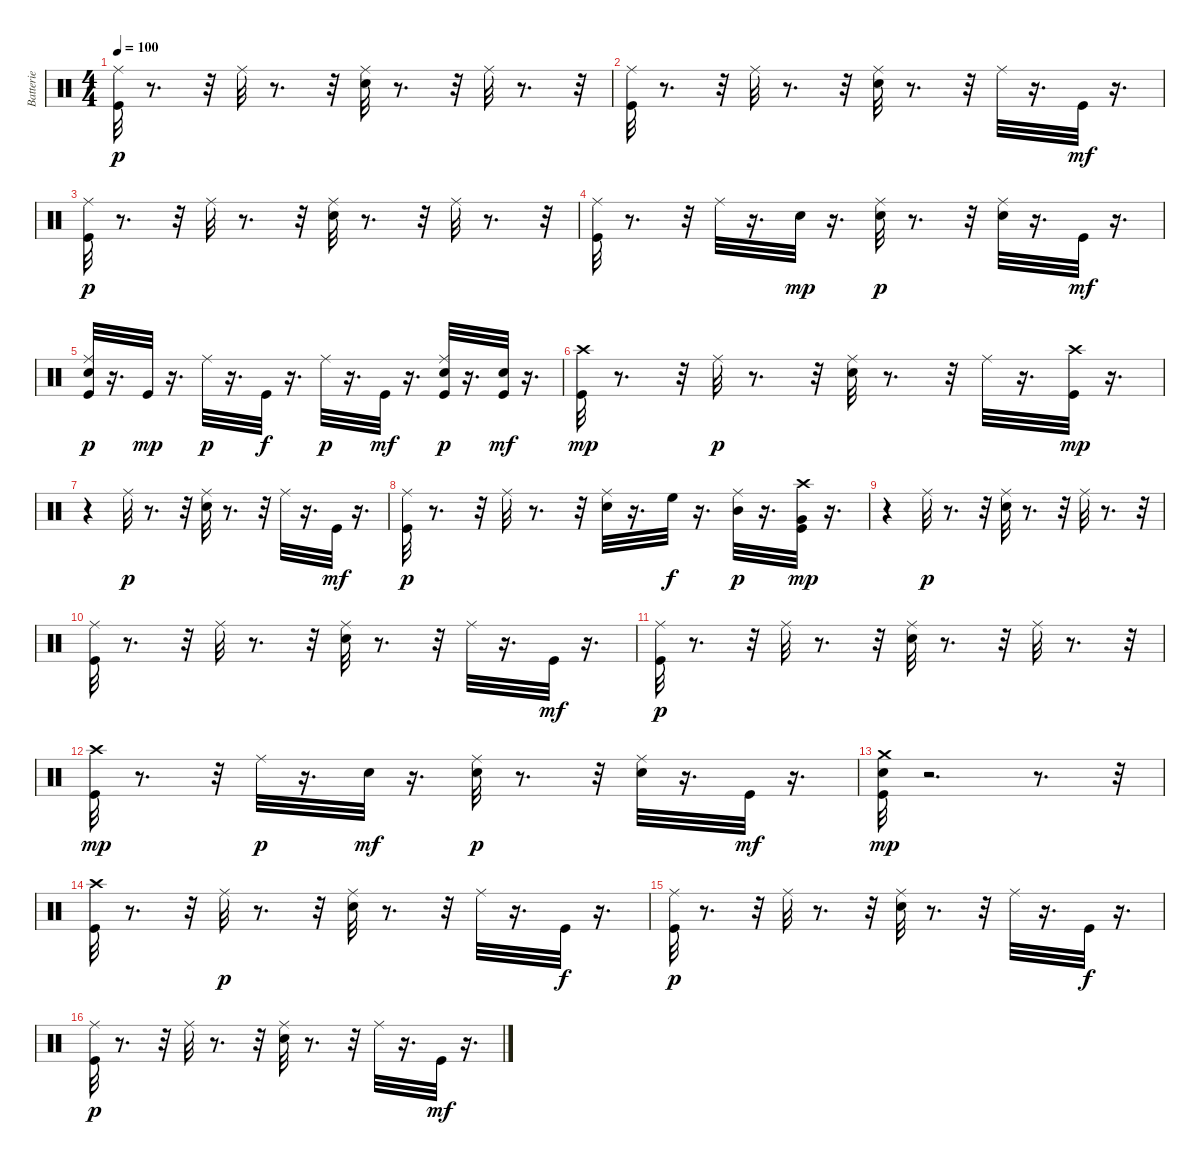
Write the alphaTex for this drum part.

\track ("Batterie" "Batterie") {instrument percussion}
\staff {score}
\articulation defaults
\ts (4 4)
\tempo 100
\clef neutral
\ks c
("Kick (hit)" "Ride (middle)").32{dy p} r.8{d} r.32 "Ride (middle)".32 r.8{d} r.32 ("Snare (hit) 2" "Ride (middle)").32 r.8{d} r.32 "Ride (middle)".32 r.8{d} r.32 |
("Kick (hit)" "Ride (middle)").32 r.8{d} r.32 "Ride (middle)".32 r.8{d} r.32 ("Snare (hit) 2" "Ride (middle)").32 r.8{d} r.32 "Ride (middle)".32 r.16{d} "Kick (hit)".32{dy mf} r.16{d} |
("Kick (hit)" "Ride (middle)").32{dy p} r.8{d} r.32 "Ride (middle)".32 r.8{d} r.32 ("Snare (hit) 2" "Ride (middle)").32 r.8{d} r.32 "Ride (middle)".32 r.8{d} r.32 |
("Kick (hit)" "Ride (middle)").32 r.8{d} r.32 "Ride (middle)".32 r.16{d} "Snare (hit) 2".32{dy mp} r.16{d} ("Snare (hit) 2" "Ride (middle)").32{dy p} r.8{d} r.32 ("Snare (hit) 2" "Ride (middle)").32 r.16{d} "Kick (hit)".32{dy mf} r.16{d} |
("Kick (hit)" "Snare (hit) 2" "Ride (middle)").32{dy p} r.16{d} "Kick (hit)".32{dy mp} r.16{d} "Ride (middle)".32{dy p} r.16{d} "Kick (hit)".32{dy f} r.16{d} "Ride (middle)".32{dy p} r.16{d} "Kick (hit)".32{dy mf} r.16{d} ("Kick (hit)" "Snare (hit) 2" "Ride (middle)").32{dy p} r.16{d} ("Kick (hit)" "Snare (hit) 2").32{dy mf} r.16{d} |
("Kick (hit)" "Crash high (hit)").32{dy mp} r.8{d} r.32 "Ride (middle)".32{dy p} r.8{d} r.32 ("Snare (hit) 2" "Ride (middle)").32 r.8{d} r.32 "Ride (middle)".32 r.16{d} ("Kick (hit)" "Crash high (hit)").32{dy mp} r.16{d} |
r.4 "Ride (middle)".32{dy p} r.8{d} r.32 ("Snare (hit) 2" "Ride (middle)").32 r.8{d} r.32 "Ride (middle)".32 r.16{d} "Kick (hit)".32{dy mf} r.16{d} |
("Kick (hit)" "Ride (middle)").32{dy p} r.8{d} r.32 "Ride (middle)".32 r.8{d} r.32 ("Snare (hit) 2" "Ride (middle)").32 r.16{d} "High Floor Tom (hit)".32{dy f} r.16{d} ("Mid Tom (hit)" "Ride (middle)").32{dy p} r.16{d} ("Kick (hit)" "Very Low Tom (hit)" "Crash high (hit)").32{dy mp} r.16{d} |
r.4 "Ride (middle)".32{dy p} r.8{d} r.32 ("Snare (hit) 2" "Ride (middle)").32 r.8{d} r.32 "Ride (middle)".32 r.8{d} r.32 |
("Kick (hit)" "Ride (middle)").32 r.8{d} r.32 "Ride (middle)".32 r.8{d} r.32 ("Snare (hit) 2" "Ride (middle)").32 r.8{d} r.32 "Ride (middle)".32 r.16{d} "Kick (hit)".32{dy mf} r.16{d} |
("Kick (hit)" "Ride (middle)").32{dy p} r.8{d} r.32 "Ride (middle)".32 r.8{d} r.32 ("Snare (hit) 2" "Ride (middle)").32 r.8{d} r.32 "Ride (middle)".32 r.8{d} r.32 |
("Kick (hit)" "Crash high (hit)").32{dy mp} r.8{d} r.32 "Ride (middle)".32{dy p} r.16{d} "Snare (hit) 2".32{dy mf} r.16{d} ("Snare (hit) 2" "Ride (middle)").32{dy p} r.8{d} r.32 ("Snare (hit) 2" "Ride (middle)").32 r.16{d} "Kick (hit)".32{dy mf} r.16{d} |
("Kick (hit)" "Snare (hit) 2" "Crash medium (hit)").32{dy mp} r.2{d} r.8{d} r.32 |
("Kick (hit)" "Crash high (hit)").32 r.8{d} r.32 "Ride (middle)".32{dy p} r.8{d} r.32 ("Snare (hit) 2" "Ride (middle)").32 r.8{d} r.32 "Ride (middle)".32 r.16{d} "Kick (hit)".32{dy f} r.16{d} |
("Kick (hit)" "Ride (middle)").32{dy p} r.8{d} r.32 "Ride (middle)".32 r.8{d} r.32 ("Snare (hit) 2" "Ride (middle)").32 r.8{d} r.32 "Ride (middle)".32 r.16{d} "Kick (hit)".32{dy f} r.16{d} |
("Kick (hit)" "Ride (middle)").32{dy p} r.8{d} r.32 "Ride (middle)".32 r.8{d} r.32 ("Snare (hit) 2" "Ride (middle)").32 r.8{d} r.32 "Ride (middle)".32 r.16{d} "Kick (hit)".32{dy mf} r.16{d}
